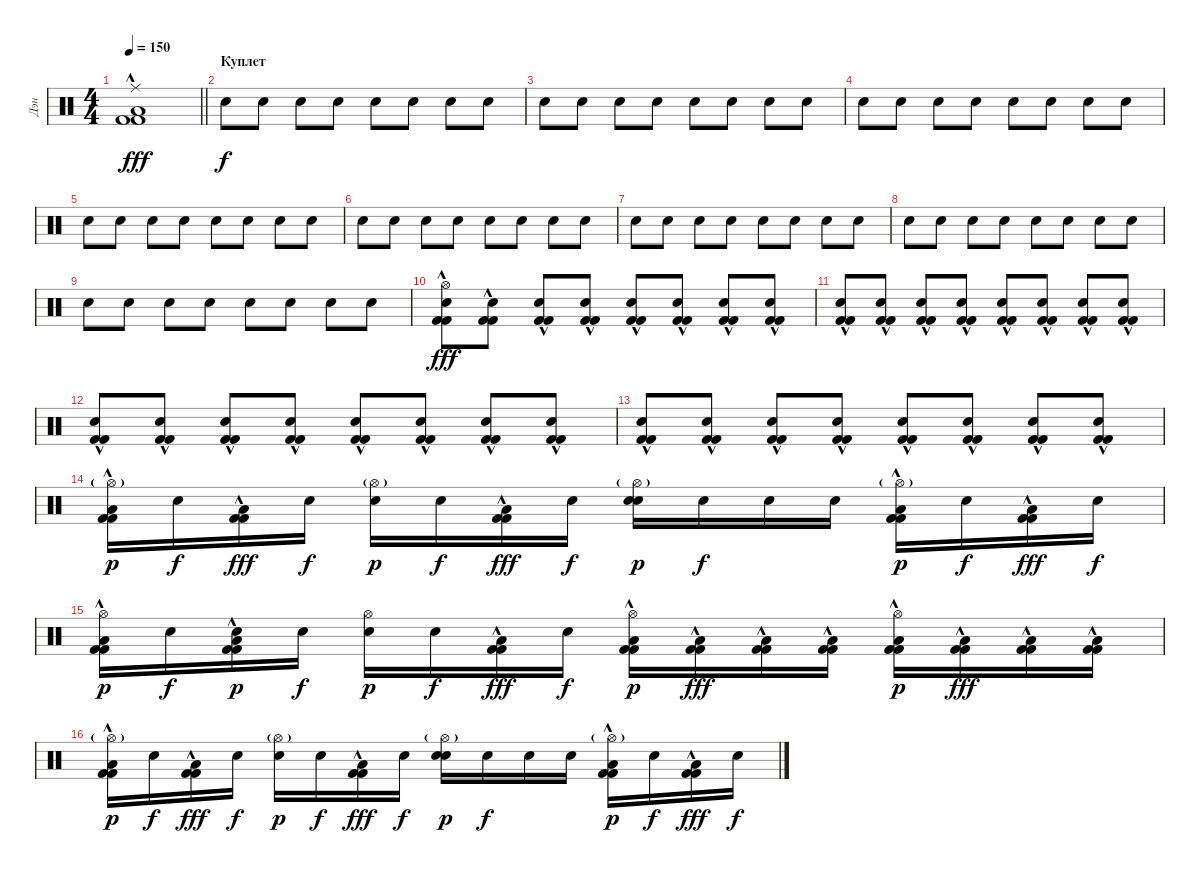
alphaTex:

\track ("Дэн" "Дэн") {instrument percussion}
\staff {score}
\articulation defaults
\ts (4 4)
\tempo 150
\clef neutral
\barLineRight lightlight
\ks c
("Ride (middle)" "Low Floor Tom (hit)" "Kick (hit) 2"{hac} "Kick (hit) 2"{hac}).1{dy fff} |
\section ("" "Куплет")
"Electric Snare (hit)".8{dy f} "Electric Snare (hit)".8 "Electric Snare (hit)".8 "Electric Snare (hit)".8 "Electric Snare (hit)".8 "Electric Snare (hit)".8 "Electric Snare (hit)".8 "Electric Snare (hit)".8 |
"Electric Snare (hit)".8 "Electric Snare (hit)".8 "Electric Snare (hit)".8 "Electric Snare (hit)".8 "Electric Snare (hit)".8 "Electric Snare (hit)".8 "Electric Snare (hit)".8 "Electric Snare (hit)".8 |
"Electric Snare (hit)".8 "Electric Snare (hit)".8 "Electric Snare (hit)".8 "Electric Snare (hit)".8 "Electric Snare (hit)".8 "Electric Snare (hit)".8 "Electric Snare (hit)".8 "Electric Snare (hit)".8 |
"Electric Snare (hit)".8 "Electric Snare (hit)".8 "Electric Snare (hit)".8 "Electric Snare (hit)".8 "Electric Snare (hit)".8 "Electric Snare (hit)".8 "Electric Snare (hit)".8 "Electric Snare (hit)".8 |
"Electric Snare (hit)".8 "Electric Snare (hit)".8 "Electric Snare (hit)".8 "Electric Snare (hit)".8 "Electric Snare (hit)".8 "Electric Snare (hit)".8 "Electric Snare (hit)".8 "Electric Snare (hit)".8 |
"Electric Snare (hit)".8 "Electric Snare (hit)".8 "Electric Snare (hit)".8 "Electric Snare (hit)".8 "Electric Snare (hit)".8 "Electric Snare (hit)".8 "Electric Snare (hit)".8 "Electric Snare (hit)".8 |
"Electric Snare (hit)".8 "Electric Snare (hit)".8 "Electric Snare (hit)".8 "Electric Snare (hit)".8 "Electric Snare (hit)".8 "Electric Snare (hit)".8 "Electric Snare (hit)".8 "Electric Snare (hit)".8 |
"Electric Snare (hit)".8 "Electric Snare (hit)".8 "Electric Snare (hit)".8 "Electric Snare (hit)".8 "Electric Snare (hit)".8 "Electric Snare (hit)".8 "Electric Snare (hit)".8 "Electric Snare (hit)".8 |
("Electric Snare (hit)" "Kick (hit) 2"{hac} "Kick (hit) 2"{hac} "Hi-Hat (open)").8{dy fff} ("Electric Snare (hit)" "Kick (hit) 2"{hac} "Kick (hit) 2"{hac}).8 ("Electric Snare (hit)" "Kick (hit) 2"{hac} "Kick (hit) 2"{hac}).8 ("Electric Snare (hit)" "Kick (hit) 2"{hac} "Kick (hit) 2"{hac}).8 ("Electric Snare (hit)" "Kick (hit) 2"{hac} "Kick (hit) 2"{hac}).8 ("Electric Snare (hit)" "Kick (hit) 2"{hac} "Kick (hit) 2"{hac}).8 ("Electric Snare (hit)" "Kick (hit) 2"{hac} "Kick (hit) 2"{hac}).8 ("Electric Snare (hit)" "Kick (hit) 2"{hac} "Kick (hit) 2"{hac}).8 |
("Electric Snare (hit)" "Kick (hit) 2"{hac} "Kick (hit) 2"{hac}).8 ("Electric Snare (hit)" "Kick (hit) 2"{hac} "Kick (hit) 2"{hac}).8 ("Electric Snare (hit)" "Kick (hit) 2"{hac} "Kick (hit) 2"{hac}).8 ("Electric Snare (hit)" "Kick (hit) 2"{hac} "Kick (hit) 2"{hac}).8 ("Electric Snare (hit)" "Kick (hit) 2"{hac} "Kick (hit) 2"{hac}).8 ("Electric Snare (hit)" "Kick (hit) 2"{hac} "Kick (hit) 2"{hac}).8 ("Electric Snare (hit)" "Kick (hit) 2"{hac} "Kick (hit) 2"{hac}).8 ("Electric Snare (hit)" "Kick (hit) 2"{hac} "Kick (hit) 2"{hac}).8 |
("Electric Snare (hit)" "Kick (hit) 2"{hac} "Kick (hit) 2"{hac}).8 ("Electric Snare (hit)" "Kick (hit) 2"{hac} "Kick (hit) 2"{hac}).8 ("Electric Snare (hit)" "Kick (hit) 2"{hac} "Kick (hit) 2"{hac}).8 ("Electric Snare (hit)" "Kick (hit) 2"{hac} "Kick (hit) 2"{hac}).8 ("Electric Snare (hit)" "Kick (hit) 2"{hac} "Kick (hit) 2"{hac}).8 ("Electric Snare (hit)" "Kick (hit) 2"{hac} "Kick (hit) 2"{hac}).8 ("Electric Snare (hit)" "Kick (hit) 2"{hac} "Kick (hit) 2"{hac}).8 ("Electric Snare (hit)" "Kick (hit) 2"{hac} "Kick (hit) 2"{hac}).8 |
("Electric Snare (hit)" "Kick (hit) 2"{hac} "Kick (hit) 2"{hac}).8 ("Electric Snare (hit)" "Kick (hit) 2"{hac} "Kick (hit) 2"{hac}).8 ("Electric Snare (hit)" "Kick (hit) 2"{hac} "Kick (hit) 2"{hac}).8 ("Electric Snare (hit)" "Kick (hit) 2"{hac} "Kick (hit) 2"{hac}).8 ("Electric Snare (hit)" "Kick (hit) 2"{hac} "Kick (hit) 2"{hac}).8 ("Electric Snare (hit)" "Kick (hit) 2"{hac} "Kick (hit) 2"{hac}).8 ("Electric Snare (hit)" "Kick (hit) 2"{hac} "Kick (hit) 2"{hac}).8 ("Electric Snare (hit)" "Kick (hit) 2"{hac} "Kick (hit) 2"{hac}).8 |
("Kick (hit) 2"{hac} "Kick (hit) 2"{hac} "Low Floor Tom (hit)" "Hi-Hat (open)"{g}).16{dy p} "Snare (hit)".16{dy f} ("Kick (hit) 2"{hac} "Kick (hit) 2"{hac} "Low Floor Tom (hit)").16{dy fff} "Snare (hit)".16{dy f} ("Snare (hit)" "Hi-Hat (open)"{g}).16{dy p} "Snare (hit)".16{dy f} ("Low Floor Tom (hit)" "Kick (hit) 2"{hac} "Kick (hit) 2"{hac}).16{dy fff} "Snare (hit)".16{dy f} ("Snare (hit)" "Electric Snare (hit)" "Hi-Hat (open)"{g}).16{dy p} "Snare (hit)".16{dy f} "Snare (hit)".16 "Snare (hit)".16 ("Low Floor Tom (hit)" "Kick (hit) 2"{hac} "Kick (hit) 2"{hac} "Hi-Hat (open)"{g}).16{dy p} "Snare (hit)".16{dy f} ("Low Floor Tom (hit)" "Kick (hit) 2"{hac} "Kick (hit) 2"{hac}).16{dy fff} "Snare (hit)".16{dy f} |
("Kick (hit) 2"{hac} "Kick (hit) 2"{hac} "Low Floor Tom (hit)" "Hi-Hat (open)").16{dy p} "Snare (hit)".16{dy f} ("Kick (hit) 2"{hac} "Kick (hit) 2"{hac} "Low Floor Tom (hit)" "Snare (hit)").16{dy p} "Snare (hit)".16{dy f} ("Snare (hit)" "Hi-Hat (open)").16{dy p} "Snare (hit)".16{dy f} ("Low Floor Tom (hit)" "Kick (hit) 2"{hac} "Kick (hit) 2"{hac}).16{dy fff} "Snare (hit)".16{dy f} ("Kick (hit) 2"{hac} "Kick (hit) 2"{hac} "Low Floor Tom (hit)" "Hi-Hat (open)").16{dy p} ("Kick (hit) 2"{hac} "Kick (hit) 2"{hac} "Low Floor Tom (hit)").16{dy fff} ("Kick (hit) 2"{hac} "Kick (hit) 2"{hac} "Low Floor Tom (hit)").16 ("Kick (hit) 2"{hac} "Kick (hit) 2"{hac} "Low Floor Tom (hit)").16 ("Kick (hit) 2"{hac} "Kick (hit) 2"{hac} "Low Floor Tom (hit)" "Hi-Hat (open)").16{dy p} ("Kick (hit) 2"{hac} "Kick (hit) 2"{hac} "Low Floor Tom (hit)").16{dy fff} ("Kick (hit) 2"{hac} "Kick (hit) 2"{hac} "Low Floor Tom (hit)").16 ("Kick (hit) 2"{hac} "Kick (hit) 2"{hac} "Low Floor Tom (hit)").16 |
("Kick (hit) 2"{hac} "Kick (hit) 2"{hac} "Low Floor Tom (hit)" "Hi-Hat (open)"{g}).16{dy p} "Snare (hit)".16{dy f} ("Kick (hit) 2"{hac} "Kick (hit) 2"{hac} "Low Floor Tom (hit)").16{dy fff} "Snare (hit)".16{dy f} ("Snare (hit)" "Hi-Hat (open)"{g}).16{dy p} "Snare (hit)".16{dy f} ("Low Floor Tom (hit)" "Kick (hit) 2"{hac} "Kick (hit) 2"{hac}).16{dy fff} "Snare (hit)".16{dy f} ("Snare (hit)" "Electric Snare (hit)" "Hi-Hat (open)"{g}).16{dy p} "Snare (hit)".16{dy f} "Snare (hit)".16 "Snare (hit)".16 ("Low Floor Tom (hit)" "Kick (hit) 2"{hac} "Kick (hit) 2"{hac} "Hi-Hat (open)"{g}).16{dy p} "Snare (hit)".16{dy f} ("Low Floor Tom (hit)" "Kick (hit) 2"{hac} "Kick (hit) 2"{hac}).16{dy fff} "Snare (hit)".16{dy f}
